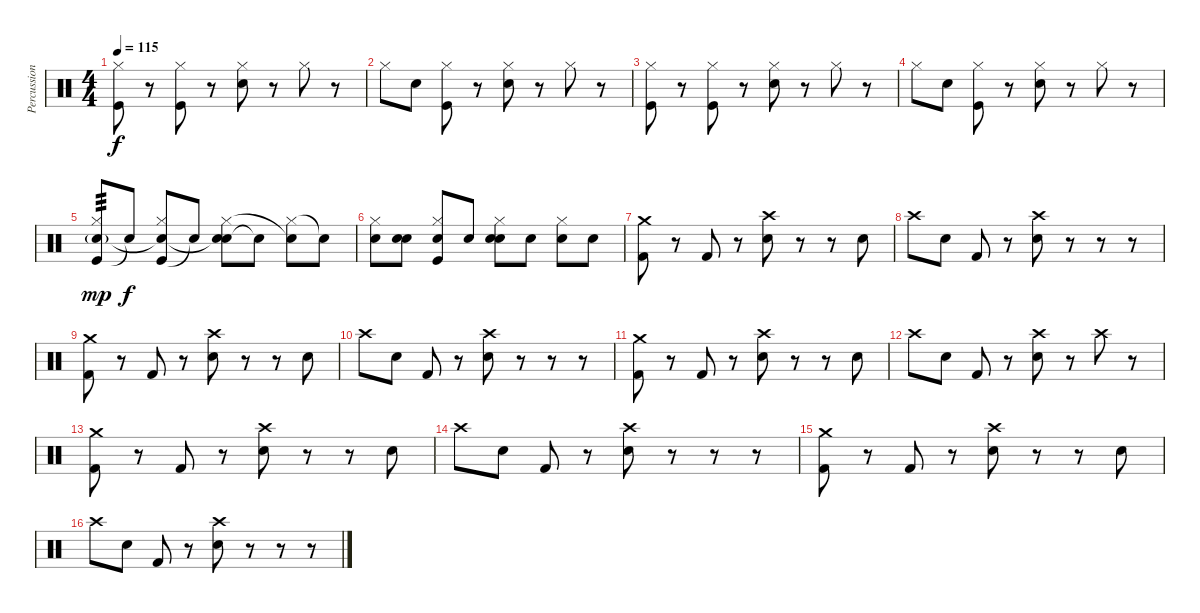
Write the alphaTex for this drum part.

\track ("Percussion" "Percussion") {instrument percussion}
\staff {score}
\articulation defaults
\ts (4 4)
\tempo 115
\clef neutral
\ks c
("Kick (hit)" "Hi-Hat (closed)").8{dy f} r.8 ("Kick (hit)" "Hi-Hat (closed)").8 r.8 ("Snare (hit) 2" "Hi-Hat (closed)").8 r.8 "Hi-Hat (closed)".8 r.8 |
"Hi-Hat (closed)".8 "Snare (hit) 2".8 ("Kick (hit)" "Hi-Hat (closed)").8 r.8 ("Snare (hit) 2" "Hi-Hat (closed)").8 r.8 "Hi-Hat (closed)".8 r.8 |
("Kick (hit)" "Hi-Hat (closed)").8 r.8 ("Kick (hit)" "Hi-Hat (closed)").8 r.8 ("Snare (hit) 2" "Hi-Hat (closed)").8 r.8 "Hi-Hat (closed)".8 r.8 |
"Hi-Hat (closed)".8 "Snare (hit) 2".8 ("Kick (hit)" "Hi-Hat (closed)").8 r.8 ("Snare (hit) 2" "Hi-Hat (closed)").8 r.8 "Hi-Hat (closed)".8 r.8 |
("Kick (hit)" "Hi-Hat (closed)" "Electric Snare (hit)"{g}).8{tp 3 dy mp} "Snare (hit)"{t}.8{dy f} ("Kick (hit)" "Hi-Hat (closed)" "Snare (hit)"{t}).8 "Snare (hit)"{t}.8 ("Snare (hit) 2" "Hi-Hat (closed)" "Snare (hit)"{t}).8 "Snare (hit)"{t}.8 ("Hi-Hat (closed)" "Snare (hit)"{t}).8 "Snare (hit)"{t}.8 |
("Hi-Hat (closed)" "Electric Snare (hit)").8 ("Snare (hit) 2" "Electric Snare (hit)").8 ("Kick (hit)" "Hi-Hat (closed)" "Electric Snare (hit)").8 "Electric Snare (hit)".8 ("Snare (hit) 2" "Hi-Hat (closed)" "Electric Snare (hit)").8 "Electric Snare (hit)".8 ("Hi-Hat (closed)" "Electric Snare (hit)").8 "Electric Snare (hit)".8 |
("Kick (hit) 2" "Crash medium (hit)").8 r.8 "Kick (hit) 2".8 r.8 ("Electric Snare (hit)" "Crash high (hit)").8 r.8 r.8 "Electric Snare (hit)".8 |
"Crash high (hit)".8 "Electric Snare (hit)".8 "Kick (hit) 2".8 r.8 ("Electric Snare (hit)" "Crash high (hit)").8 r.8 r.8 r.8 |
("Kick (hit) 2" "Crash medium (hit)").8 r.8 "Kick (hit) 2".8 r.8 ("Electric Snare (hit)" "Crash high (hit)").8 r.8 r.8 "Electric Snare (hit)".8 |
"Crash high (hit)".8 "Electric Snare (hit)".8 "Kick (hit) 2".8 r.8 ("Electric Snare (hit)" "Crash high (hit)").8 r.8 r.8 r.8 |
("Kick (hit) 2" "Crash medium (hit)").8 r.8 "Kick (hit) 2".8 r.8 ("Electric Snare (hit)" "Crash high (hit)").8 r.8 r.8 "Electric Snare (hit)".8 |
"Crash high (hit)".8 "Electric Snare (hit)".8 "Kick (hit) 2".8 r.8 ("Electric Snare (hit)" "Crash high (hit)").8 r.8 "Crash high (hit)".8 r.8 |
("Kick (hit) 2" "Crash medium (hit)").8 r.8 "Kick (hit) 2".8 r.8 ("Electric Snare (hit)" "Crash high (hit)").8 r.8 r.8 "Electric Snare (hit)".8 |
"Crash high (hit)".8 "Electric Snare (hit)".8 "Kick (hit) 2".8 r.8 ("Electric Snare (hit)" "Crash high (hit)").8 r.8 r.8 r.8 |
("Kick (hit) 2" "Crash medium (hit)").8 r.8 "Kick (hit) 2".8 r.8 ("Electric Snare (hit)" "Crash high (hit)").8 r.8 r.8 "Electric Snare (hit)".8 |
"Crash high (hit)".8 "Electric Snare (hit)".8 "Kick (hit) 2".8 r.8 ("Electric Snare (hit)" "Crash high (hit)").8 r.8 r.8 r.8
